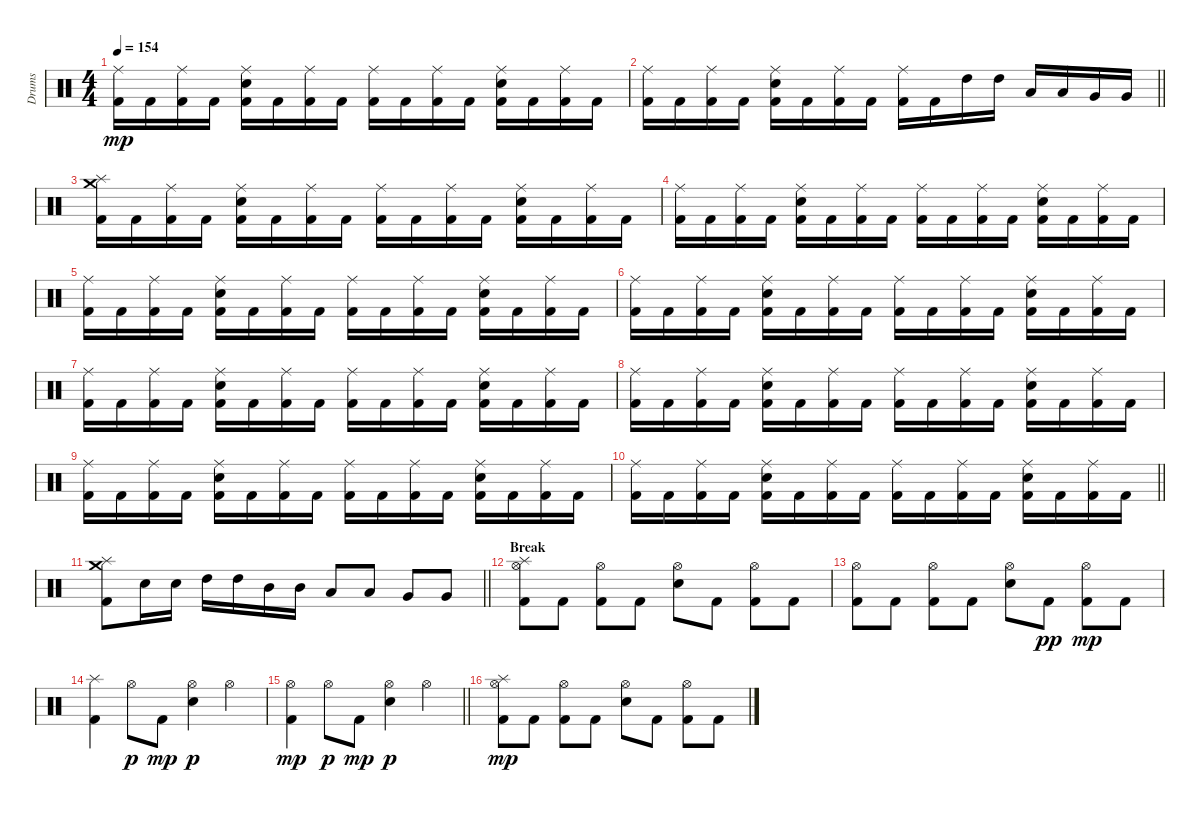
\track ("Drums" "Drums") {instrument percussion}
\staff {score}
\articulation defaults
\ts (4 4)
\tempo 154
\clef neutral
\ks c
("Ride (middle)" "Kick (hit) 2").16{dy mp} "Kick (hit) 2".16 ("Ride (middle)" "Kick (hit) 2").16 "Kick (hit) 2".16 ("Ride (middle)" "Electric Snare (hit)" "Kick (hit) 2").16 "Kick (hit) 2".16 ("Ride (middle)" "Kick (hit) 2").16 "Kick (hit) 2".16 ("Ride (middle)" "Kick (hit) 2").16 "Kick (hit) 2".16 ("Ride (middle)" "Kick (hit) 2").16 "Kick (hit) 2".16 ("Ride (middle)" "Electric Snare (hit)" "Kick (hit) 2").16 "Kick (hit) 2".16 ("Ride (middle)" "Kick (hit) 2").16 "Kick (hit) 2".16 |
\barLineRight lightlight
("Ride (middle)" "Kick (hit) 2").16 "Kick (hit) 2".16 ("Ride (middle)" "Kick (hit) 2").16 "Kick (hit) 2".16 ("Ride (middle)" "Electric Snare (hit)" "Kick (hit) 2").16 "Kick (hit) 2".16 ("Ride (middle)" "Kick (hit) 2").16 "Kick (hit) 2".16 ("Ride (middle)" "Kick (hit) 2").16 "Kick (hit) 2".16 "High Tom (hit)".16 "High Tom (hit)".16 "Low Tom (hit)".16 "Low Tom (hit)".16 "Very Low Tom (hit)".16 "Very Low Tom (hit)".16 |
("Crash medium (hit)" "Splash (hit)" "Kick (hit) 2").16 "Kick (hit) 2".16 ("Ride (middle)" "Kick (hit) 2").16 "Kick (hit) 2".16 ("Ride (middle)" "Electric Snare (hit)" "Kick (hit) 2").16 "Kick (hit) 2".16 ("Ride (middle)" "Kick (hit) 2").16 "Kick (hit) 2".16 ("Ride (middle)" "Kick (hit) 2").16 "Kick (hit) 2".16 ("Ride (middle)" "Kick (hit) 2").16 "Kick (hit) 2".16 ("Ride (middle)" "Electric Snare (hit)" "Kick (hit) 2").16 "Kick (hit) 2".16 ("Ride (middle)" "Kick (hit) 2").16 "Kick (hit) 2".16 |
("Ride (middle)" "Kick (hit) 2").16 "Kick (hit) 2".16 ("Ride (middle)" "Kick (hit) 2").16 "Kick (hit) 2".16 ("Ride (middle)" "Electric Snare (hit)" "Kick (hit) 2").16 "Kick (hit) 2".16 ("Ride (middle)" "Kick (hit) 2").16 "Kick (hit) 2".16 ("Ride (middle)" "Kick (hit) 2").16 "Kick (hit) 2".16 ("Ride (middle)" "Kick (hit) 2").16 "Kick (hit) 2".16 ("Ride (middle)" "Electric Snare (hit)" "Kick (hit) 2").16 "Kick (hit) 2".16 ("Ride (middle)" "Kick (hit) 2").16 "Kick (hit) 2".16 |
("Ride (middle)" "Kick (hit) 2").16 "Kick (hit) 2".16 ("Ride (middle)" "Kick (hit) 2").16 "Kick (hit) 2".16 ("Ride (middle)" "Electric Snare (hit)" "Kick (hit) 2").16 "Kick (hit) 2".16 ("Ride (middle)" "Kick (hit) 2").16 "Kick (hit) 2".16 ("Ride (middle)" "Kick (hit) 2").16 "Kick (hit) 2".16 ("Ride (middle)" "Kick (hit) 2").16 "Kick (hit) 2".16 ("Ride (middle)" "Electric Snare (hit)" "Kick (hit) 2").16 "Kick (hit) 2".16 ("Ride (middle)" "Kick (hit) 2").16 "Kick (hit) 2".16 |
("Ride (middle)" "Kick (hit) 2").16 "Kick (hit) 2".16 ("Ride (middle)" "Kick (hit) 2").16 "Kick (hit) 2".16 ("Ride (middle)" "Electric Snare (hit)" "Kick (hit) 2").16 "Kick (hit) 2".16 ("Ride (middle)" "Kick (hit) 2").16 "Kick (hit) 2".16 ("Ride (middle)" "Kick (hit) 2").16 "Kick (hit) 2".16 ("Ride (middle)" "Kick (hit) 2").16 "Kick (hit) 2".16 ("Ride (middle)" "Electric Snare (hit)" "Kick (hit) 2").16 "Kick (hit) 2".16 ("Ride (middle)" "Kick (hit) 2").16 "Kick (hit) 2".16 |
("Ride (middle)" "Kick (hit) 2").16 "Kick (hit) 2".16 ("Ride (middle)" "Kick (hit) 2").16 "Kick (hit) 2".16 ("Ride (middle)" "Electric Snare (hit)" "Kick (hit) 2").16 "Kick (hit) 2".16 ("Ride (middle)" "Kick (hit) 2").16 "Kick (hit) 2".16 ("Ride (middle)" "Kick (hit) 2").16 "Kick (hit) 2".16 ("Ride (middle)" "Kick (hit) 2").16 "Kick (hit) 2".16 ("Ride (middle)" "Electric Snare (hit)" "Kick (hit) 2").16 "Kick (hit) 2".16 ("Ride (middle)" "Kick (hit) 2").16 "Kick (hit) 2".16 |
("Ride (middle)" "Kick (hit) 2").16 "Kick (hit) 2".16 ("Ride (middle)" "Kick (hit) 2").16 "Kick (hit) 2".16 ("Ride (middle)" "Electric Snare (hit)" "Kick (hit) 2").16 "Kick (hit) 2".16 ("Ride (middle)" "Kick (hit) 2").16 "Kick (hit) 2".16 ("Ride (middle)" "Kick (hit) 2").16 "Kick (hit) 2".16 ("Ride (middle)" "Kick (hit) 2").16 "Kick (hit) 2".16 ("Ride (middle)" "Electric Snare (hit)" "Kick (hit) 2").16 "Kick (hit) 2".16 ("Ride (middle)" "Kick (hit) 2").16 "Kick (hit) 2".16 |
("Ride (middle)" "Kick (hit) 2").16 "Kick (hit) 2".16 ("Ride (middle)" "Kick (hit) 2").16 "Kick (hit) 2".16 ("Ride (middle)" "Electric Snare (hit)" "Kick (hit) 2").16 "Kick (hit) 2".16 ("Ride (middle)" "Kick (hit) 2").16 "Kick (hit) 2".16 ("Ride (middle)" "Kick (hit) 2").16 "Kick (hit) 2".16 ("Ride (middle)" "Kick (hit) 2").16 "Kick (hit) 2".16 ("Ride (middle)" "Electric Snare (hit)" "Kick (hit) 2").16 "Kick (hit) 2".16 ("Ride (middle)" "Kick (hit) 2").16 "Kick (hit) 2".16 |
\barLineRight lightlight
("Ride (middle)" "Kick (hit) 2").16 "Kick (hit) 2".16 ("Ride (middle)" "Kick (hit) 2").16 "Kick (hit) 2".16 ("Ride (middle)" "Electric Snare (hit)" "Kick (hit) 2").16 "Kick (hit) 2".16 ("Ride (middle)" "Kick (hit) 2").16 "Kick (hit) 2".16 ("Ride (middle)" "Kick (hit) 2").16 "Kick (hit) 2".16 ("Ride (middle)" "Kick (hit) 2").16 "Kick (hit) 2".16 ("Ride (middle)" "Electric Snare (hit)" "Kick (hit) 2").16 "Kick (hit) 2".16 ("Ride (middle)" "Kick (hit) 2").16 "Kick (hit) 2".16 |
\barLineRight lightlight
("Crash medium (hit)" "Splash (hit)" "Kick (hit) 2").8 "Electric Snare (hit)".16 "Electric Snare (hit)".16 "High Tom (hit)".16 "High Tom (hit)".16 "Mid Tom (hit)".16 "Mid Tom (hit)".16 "Low Tom (hit)".8 "Low Tom (hit)".8 "Very Low Tom (hit)".8 "Very Low Tom (hit)".8 |
\section ("" "Break")
("Splash (hit)" "Hi-Hat (open)" "Kick (hit) 2").8 "Kick (hit) 2".8 ("Hi-Hat (open)" "Kick (hit) 2").8 "Kick (hit) 2".8 ("Hi-Hat (open)" "Electric Snare (hit)").8 "Kick (hit) 2".8 ("Hi-Hat (open)" "Kick (hit) 2").8 "Kick (hit) 2".8 |
("Hi-Hat (open)" "Kick (hit) 2").8 "Kick (hit) 2".8 ("Hi-Hat (open)" "Kick (hit) 2").8 "Kick (hit) 2".8 ("Hi-Hat (open)" "Electric Snare (hit)").8 "Kick (hit) 2".8{dy pp} ("Hi-Hat (open)" "Kick (hit) 2").8{dy mp} "Kick (hit) 2".8 |
("Splash (hit)" "Kick (hit) 2").4 "Hi-Hat (open)".8{dy p} "Kick (hit) 2".8{dy mp} ("Hi-Hat (open)" "Electric Snare (hit)").4{dy p} "Hi-Hat (open)".4 |
\barLineRight lightlight
("Hi-Hat (open)" "Kick (hit) 2").4{dy mp} "Hi-Hat (open)".8{dy p} "Kick (hit) 2".8{dy mp} ("Hi-Hat (open)" "Electric Snare (hit)").4{dy p} "Hi-Hat (open)".4 |
("Splash (hit)" "Hi-Hat (open)" "Kick (hit) 2").8{dy mp} "Kick (hit) 2".8 ("Hi-Hat (open)" "Kick (hit) 2").8 "Kick (hit) 2".8 ("Hi-Hat (open)" "Electric Snare (hit)").8 "Kick (hit) 2".8 ("Hi-Hat (open)" "Kick (hit) 2").8 "Kick (hit) 2".8
